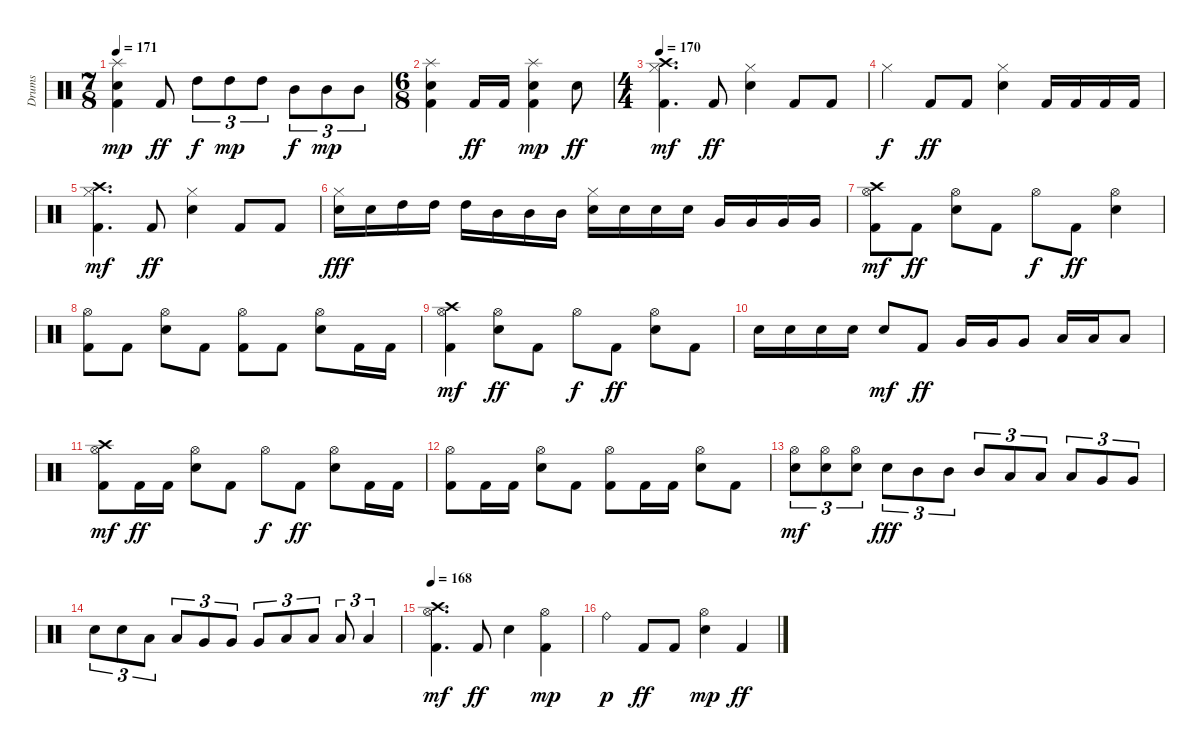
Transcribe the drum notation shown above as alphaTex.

\track ("Drums" "Drums") {instrument percussion}
\staff {score}
\articulation defaults
\ts (7 8)
\tempo 171
\clef neutral
\ks c
("Kick (hit) 2" "Electric Snare (hit)" "Splash (hit)").4{dy mp} "Kick (hit) 2".8{dy ff} "High Tom (hit)".8{tu (3 2) dy f} "High Tom (hit)".8{tu (3 2) dy mp} "High Tom (hit)".8{tu (3 2)} "Mid Tom (hit)".8{tu (3 2) dy f} "Mid Tom (hit)".8{tu (3 2) dy mp} "Mid Tom (hit)".8{tu (3 2)} |
\ts (6 8)
("Kick (hit) 2" "Electric Snare (hit)" "Splash (hit)").4 "Kick (hit) 2".16{dy ff} "Kick (hit) 2".16 ("Kick (hit) 2" "Electric Snare (hit)" "Splash (hit)").4{dy mp} "Electric Snare (hit)".8{dy ff} |
\ts (4 4)
\tempo 170
("Kick (hit) 2" "Hi-Hat (closed)" "Crash high (hit)").4{d dy mf} "Kick (hit) 2".8{dy ff} ("Electric Snare (hit)" "Hi-Hat (closed)").4 "Kick (hit) 2".8 "Kick (hit) 2".8 |
"Hi-Hat (closed)".4{dy f} "Kick (hit) 2".8{dy ff} "Kick (hit) 2".8 ("Electric Snare (hit)" "Hi-Hat (closed)").4 "Kick (hit) 2".16 "Kick (hit) 2".16 "Kick (hit) 2".16 "Kick (hit) 2".16 |
("Kick (hit) 2" "Hi-Hat (closed)" "Crash high (hit)").4{d dy mf} "Kick (hit) 2".8{dy ff} ("Electric Snare (hit)" "Hi-Hat (closed)").4 "Kick (hit) 2".8 "Kick (hit) 2".8 |
("Electric Snare (hit)" "Hi-Hat (closed)").16{dy fff} "Electric Snare (hit)".16 "High Tom (hit)".16 "High Tom (hit)".16 "High Tom (hit)".16 "Mid Tom (hit)".16 "Mid Tom (hit)".16 "Mid Tom (hit)".16 ("Electric Snare (hit)" "Hi-Hat (closed)").16 "Electric Snare (hit)".16 "Electric Snare (hit)".16 "Electric Snare (hit)".16 "Very Low Tom (hit)".16 "Very Low Tom (hit)".16 "Very Low Tom (hit)".16 "Very Low Tom (hit)".16 |
("Kick (hit) 2" "Hi-Hat (open)" "Crash high (hit)").8{dy mf} "Kick (hit) 2".8{dy ff} ("Electric Snare (hit)" "Hi-Hat (open)").8 "Kick (hit) 2".8 "Hi-Hat (open)".8{dy f} "Kick (hit) 2".8{dy ff} ("Electric Snare (hit)" "Hi-Hat (open)").4 |
("Kick (hit) 2" "Hi-Hat (open)").8 "Kick (hit) 2".8 ("Electric Snare (hit)" "Hi-Hat (open)").8 "Kick (hit) 2".8 ("Kick (hit) 2" "Hi-Hat (open)").8 "Kick (hit) 2".8 ("Electric Snare (hit)" "Hi-Hat (open)").8 "Kick (hit) 2".16 "Kick (hit) 2".16 |
("Kick (hit) 2" "Hi-Hat (open)" "Crash high (hit)").4{dy mf} ("Electric Snare (hit)" "Hi-Hat (open)").8{dy ff} "Kick (hit) 2".8 "Hi-Hat (open)".8{dy f} "Kick (hit) 2".8{dy ff} ("Electric Snare (hit)" "Hi-Hat (open)").8 "Kick (hit) 2".8 |
"Electric Snare (hit)".16 "Electric Snare (hit)".16 "Electric Snare (hit)".16 "Electric Snare (hit)".16 "Electric Snare (hit)".8{dy mf} "Kick (hit) 2".8{dy ff} "Very Low Tom (hit)".16 "Very Low Tom (hit)".16 "Very Low Tom (hit)".8 "Low Floor Tom (hit)".16 "Low Floor Tom (hit)".16 "Low Floor Tom (hit)".8 |
("Kick (hit) 2" "Hi-Hat (open)" "Crash high (hit)").8{dy mf} "Kick (hit) 2".16{dy ff} "Kick (hit) 2".16 ("Electric Snare (hit)" "Hi-Hat (open)").8 "Kick (hit) 2".8 "Hi-Hat (open)".8{dy f} "Kick (hit) 2".8{dy ff} ("Electric Snare (hit)" "Hi-Hat (open)").8 "Kick (hit) 2".16 "Kick (hit) 2".16 |
("Kick (hit) 2" "Hi-Hat (open)").8 "Kick (hit) 2".16 "Kick (hit) 2".16 ("Electric Snare (hit)" "Hi-Hat (open)").8 "Kick (hit) 2".8 ("Kick (hit) 2" "Hi-Hat (open)").8 "Kick (hit) 2".16 "Kick (hit) 2".16 ("Electric Snare (hit)" "Hi-Hat (open)").8 "Kick (hit) 2".8 |
("Electric Snare (hit)" "Hi-Hat (open)").8{tu (3 2) dy mf} ("Electric Snare (hit)" "Hi-Hat (open)").8{tu (3 2)} ("Electric Snare (hit)" "Hi-Hat (open)").8{tu (3 2)} "Electric Snare (hit)".8{tu (3 2) dy fff} "Mid Tom (hit)".8{tu (3 2)} "Mid Tom (hit)".8{tu (3 2)} "Mid Tom (hit)".8{tu (3 2)} "Low Tom (hit)".8{tu (3 2)} "Low Tom (hit)".8{tu (3 2)} "Low Tom (hit)".8{tu (3 2)} "Very Low Tom (hit)".8{tu (3 2)} "Very Low Tom (hit)".8{tu (3 2)} |
"Electric Snare (hit)".8{tu (3 2)} "Electric Snare (hit)".8{tu (3 2)} "Low Tom (hit)".8{tu (3 2)} "Low Tom (hit)".8{tu (3 2)} "Very Low Tom (hit)".8{tu (3 2)} "Very Low Tom (hit)".8{tu (3 2)} "Very Low Tom (hit)".8{tu (3 2)} "Low Floor Tom (hit)".8{tu (3 2)} "Low Floor Tom (hit)".8{tu (3 2)} "Low Floor Tom (hit)".8{tu (3 2)} "Low Floor Tom (hit)".4{tu (3 2)} |
\tempo 168
("Kick (hit) 2" "Hi-Hat (open)" "Crash high (hit)").4{d dy mf} "Kick (hit) 2".8{dy ff} "Electric Snare (hit)".4 ("Kick (hit) 2" "Hi-Hat (open)").4{dy mp} |
"Ride (bell)".4{dy p} "Kick (hit) 2".8{dy ff} "Kick (hit) 2".8 ("Electric Snare (hit)" "Hi-Hat (open)").4{dy mp} "Kick (hit) 2".4{dy ff}
